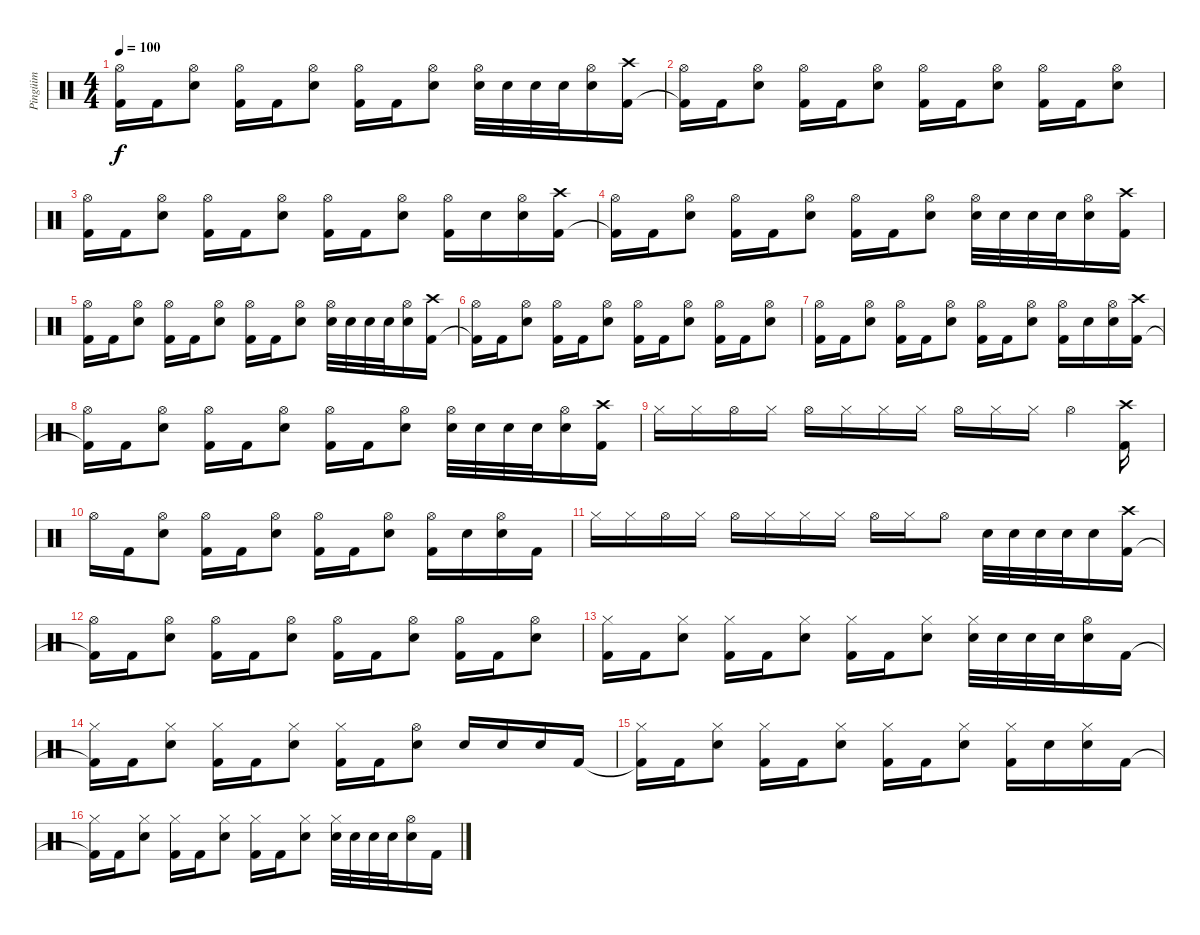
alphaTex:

\track ("Pingüim" "Pingüim") {instrument percussion}
\staff {score}
\articulation defaults
\ts (4 4)
\tempo 100
\clef neutral
\ks c
("Kick (hit) 2" "Hi-Hat (open)").16{dy f} "Kick (hit) 2".16 ("Snare (hit) 2" "Hi-Hat (open)").8 ("Kick (hit) 2" "Hi-Hat (open)").16 "Kick (hit) 2".16 ("Snare (hit) 2" "Hi-Hat (open)").8 ("Kick (hit) 2" "Hi-Hat (open)").16 "Kick (hit) 2".16 ("Snare (hit) 2" "Hi-Hat (open)").8 ("Snare (hit) 2" "Hi-Hat (open)").32 "Snare (hit) 2".32 "Snare (hit) 2".32 "Snare (hit) 2".32 ("Snare (hit) 2" "Hi-Hat (open)").16 ("Kick (hit) 2" "Crash high (hit)").16 |
("Kick (hit) 2"{t} "Hi-Hat (open)").16 "Kick (hit) 2".16 ("Snare (hit) 2" "Hi-Hat (open)").8 ("Kick (hit) 2" "Hi-Hat (open)").16 "Kick (hit) 2".16 ("Snare (hit) 2" "Hi-Hat (open)").8 ("Kick (hit) 2" "Hi-Hat (open)").16 "Kick (hit) 2".16 ("Snare (hit) 2" "Hi-Hat (open)").8 ("Kick (hit) 2" "Hi-Hat (open)").16 "Kick (hit) 2".16 ("Snare (hit) 2" "Hi-Hat (open)").8 |
("Kick (hit) 2" "Hi-Hat (open)").16 "Kick (hit) 2".16 ("Snare (hit) 2" "Hi-Hat (open)").8 ("Kick (hit) 2" "Hi-Hat (open)").16 "Kick (hit) 2".16 ("Snare (hit) 2" "Hi-Hat (open)").8 ("Kick (hit) 2" "Hi-Hat (open)").16 "Kick (hit) 2".16 ("Snare (hit) 2" "Hi-Hat (open)").8 ("Kick (hit) 2" "Hi-Hat (open)").16 "Snare (hit) 2".16 ("Snare (hit) 2" "Hi-Hat (open)").16 ("Kick (hit) 2" "Crash high (hit)").16 |
("Kick (hit) 2"{t} "Hi-Hat (open)").16 "Kick (hit) 2".16 ("Snare (hit) 2" "Hi-Hat (open)").8 ("Kick (hit) 2" "Hi-Hat (open)").16 "Kick (hit) 2".16 ("Snare (hit) 2" "Hi-Hat (open)").8 ("Kick (hit) 2" "Hi-Hat (open)").16 "Kick (hit) 2".16 ("Snare (hit) 2" "Hi-Hat (open)").8 ("Snare (hit) 2" "Hi-Hat (open)").32 "Snare (hit) 2".32 "Snare (hit) 2".32 "Snare (hit) 2".32 ("Snare (hit) 2" "Hi-Hat (open)").16 ("Kick (hit) 2" "Crash high (hit)").16 |
("Kick (hit) 2" "Hi-Hat (open)").16 "Kick (hit) 2".16 ("Snare (hit) 2" "Hi-Hat (open)").8 ("Kick (hit) 2" "Hi-Hat (open)").16 "Kick (hit) 2".16 ("Snare (hit) 2" "Hi-Hat (open)").8 ("Kick (hit) 2" "Hi-Hat (open)").16 "Kick (hit) 2".16 ("Snare (hit) 2" "Hi-Hat (open)").8 ("Snare (hit) 2" "Hi-Hat (open)").32 "Snare (hit) 2".32 "Snare (hit) 2".32 "Snare (hit) 2".32 ("Snare (hit) 2" "Hi-Hat (open)").16 ("Kick (hit) 2" "Crash high (hit)").16 |
("Kick (hit) 2"{t} "Hi-Hat (open)").16 "Kick (hit) 2".16 ("Snare (hit) 2" "Hi-Hat (open)").8 ("Kick (hit) 2" "Hi-Hat (open)").16 "Kick (hit) 2".16 ("Snare (hit) 2" "Hi-Hat (open)").8 ("Kick (hit) 2" "Hi-Hat (open)").16 "Kick (hit) 2".16 ("Snare (hit) 2" "Hi-Hat (open)").8 ("Kick (hit) 2" "Hi-Hat (open)").16 "Kick (hit) 2".16 ("Snare (hit) 2" "Hi-Hat (open)").8 |
("Kick (hit) 2" "Hi-Hat (open)").16 "Kick (hit) 2".16 ("Snare (hit) 2" "Hi-Hat (open)").8 ("Kick (hit) 2" "Hi-Hat (open)").16 "Kick (hit) 2".16 ("Snare (hit) 2" "Hi-Hat (open)").8 ("Kick (hit) 2" "Hi-Hat (open)").16 "Kick (hit) 2".16 ("Snare (hit) 2" "Hi-Hat (open)").8 ("Kick (hit) 2" "Hi-Hat (open)").16 "Snare (hit) 2".16 ("Snare (hit) 2" "Hi-Hat (open)").16 ("Kick (hit) 2" "Crash high (hit)").16 |
("Kick (hit) 2"{t} "Hi-Hat (open)").16 "Kick (hit) 2".16 ("Snare (hit) 2" "Hi-Hat (open)").8 ("Kick (hit) 2" "Hi-Hat (open)").16 "Kick (hit) 2".16 ("Snare (hit) 2" "Hi-Hat (open)").8 ("Kick (hit) 2" "Hi-Hat (open)").16 "Kick (hit) 2".16 ("Snare (hit) 2" "Hi-Hat (open)").8 ("Snare (hit) 2" "Hi-Hat (open)").32 "Snare (hit) 2".32 "Snare (hit) 2".32 "Snare (hit) 2".32 ("Snare (hit) 2" "Hi-Hat (open)").16 ("Kick (hit) 2" "Crash high (hit)").16 |
"Hi-Hat (closed)".16 "Hi-Hat (closed)".16 "Hi-Hat (open)".16 "Hi-Hat (closed)".16 "Hi-Hat (open)".16 "Hi-Hat (closed)".16 "Hi-Hat (closed)".16 "Hi-Hat (closed)".16 "Hi-Hat (open)".16 "Hi-Hat (closed)".16 "Hi-Hat (closed)".16 "Hi-Hat (open)".4 ("Crash high (hit)" "Kick (hit) 2").16 |
"Hi-Hat (open)".16 "Kick (hit) 2".16 ("Snare (hit) 2" "Hi-Hat (open)").8 ("Kick (hit) 2" "Hi-Hat (open)").16 "Kick (hit) 2".16 ("Snare (hit) 2" "Hi-Hat (open)").8 ("Kick (hit) 2" "Hi-Hat (open)").16 "Kick (hit) 2".16 ("Snare (hit) 2" "Hi-Hat (open)").8 ("Kick (hit) 2" "Hi-Hat (open)").16 "Snare (hit) 2".16 ("Snare (hit) 2" "Hi-Hat (open)").16 "Kick (hit) 2".16 |
"Hi-Hat (closed)".16 "Hi-Hat (closed)".16 "Hi-Hat (open)".16 "Hi-Hat (closed)".16 "Hi-Hat (open)".16 "Hi-Hat (closed)".16 "Hi-Hat (closed)".16 "Hi-Hat (closed)".16 "Hi-Hat (open)".16 "Hi-Hat (closed)".16 "Hi-Hat (open)".8 "Snare (hit) 2".32 "Snare (hit) 2".32 "Snare (hit) 2".32 "Snare (hit) 2".32 "Snare (hit) 2".16 ("Kick (hit) 2" "Crash high (hit)").16 |
("Kick (hit) 2"{t} "Hi-Hat (open)").16 "Kick (hit) 2".16 ("Snare (hit) 2" "Hi-Hat (open)").8 ("Kick (hit) 2" "Hi-Hat (open)").16 "Kick (hit) 2".16 ("Snare (hit) 2" "Hi-Hat (open)").8 ("Kick (hit) 2" "Hi-Hat (open)").16 "Kick (hit) 2".16 ("Snare (hit) 2" "Hi-Hat (open)").8 ("Kick (hit) 2" "Hi-Hat (open)").16 "Kick (hit) 2".16 ("Snare (hit) 2" "Hi-Hat (open)").8 |
("Kick (hit) 2" "Hi-Hat (closed)").16 "Kick (hit) 2".16 ("Snare (hit) 2" "Hi-Hat (closed)").8 ("Kick (hit) 2" "Hi-Hat (closed)").16 "Kick (hit) 2".16 ("Snare (hit) 2" "Hi-Hat (closed)").8 ("Kick (hit) 2" "Hi-Hat (closed)").16 "Kick (hit) 2".16 ("Snare (hit) 2" "Hi-Hat (closed)").8 ("Snare (hit) 2" "Hi-Hat (closed)").32 "Snare (hit) 2".32 "Snare (hit) 2".32 "Snare (hit) 2".32 ("Snare (hit) 2" "Hi-Hat (open)").16 "Kick (hit) 2".16 |
("Kick (hit) 2"{t} "Hi-Hat (closed)").16 "Kick (hit) 2".16 ("Snare (hit) 2" "Hi-Hat (closed)").8 ("Kick (hit) 2" "Hi-Hat (closed)").16 "Kick (hit) 2".16 ("Snare (hit) 2" "Hi-Hat (closed)").8 ("Kick (hit) 2" "Hi-Hat (closed)").16 "Kick (hit) 2".16 ("Snare (hit) 2" "Hi-Hat (open)").8 "Snare (hit) 2".16 "Snare (hit) 2".16 "Snare (hit) 2".16 "Kick (hit) 2".16 |
("Kick (hit) 2"{t} "Hi-Hat (closed)").16 "Kick (hit) 2".16 ("Snare (hit) 2" "Hi-Hat (closed)").8 ("Kick (hit) 2" "Hi-Hat (closed)").16 "Kick (hit) 2".16 ("Snare (hit) 2" "Hi-Hat (closed)").8 ("Kick (hit) 2" "Hi-Hat (closed)").16 "Kick (hit) 2".16 ("Snare (hit) 2" "Hi-Hat (closed)").8 ("Kick (hit) 2" "Hi-Hat (closed)").16 "Snare (hit) 2".16 ("Snare (hit) 2" "Hi-Hat (closed)").16 "Kick (hit) 2".16 |
("Kick (hit) 2"{t} "Hi-Hat (closed)").16 "Kick (hit) 2".16 ("Snare (hit) 2" "Hi-Hat (closed)").8 ("Kick (hit) 2" "Hi-Hat (closed)").16 "Kick (hit) 2".16 ("Snare (hit) 2" "Hi-Hat (closed)").8 ("Kick (hit) 2" "Hi-Hat (closed)").16 "Kick (hit) 2".16 ("Snare (hit) 2" "Hi-Hat (closed)").8 ("Snare (hit) 2" "Hi-Hat (closed)").32 "Snare (hit) 2".32 "Snare (hit) 2".32 "Snare (hit) 2".32 ("Snare (hit) 2" "Hi-Hat (open)").16 "Kick (hit) 2".16
